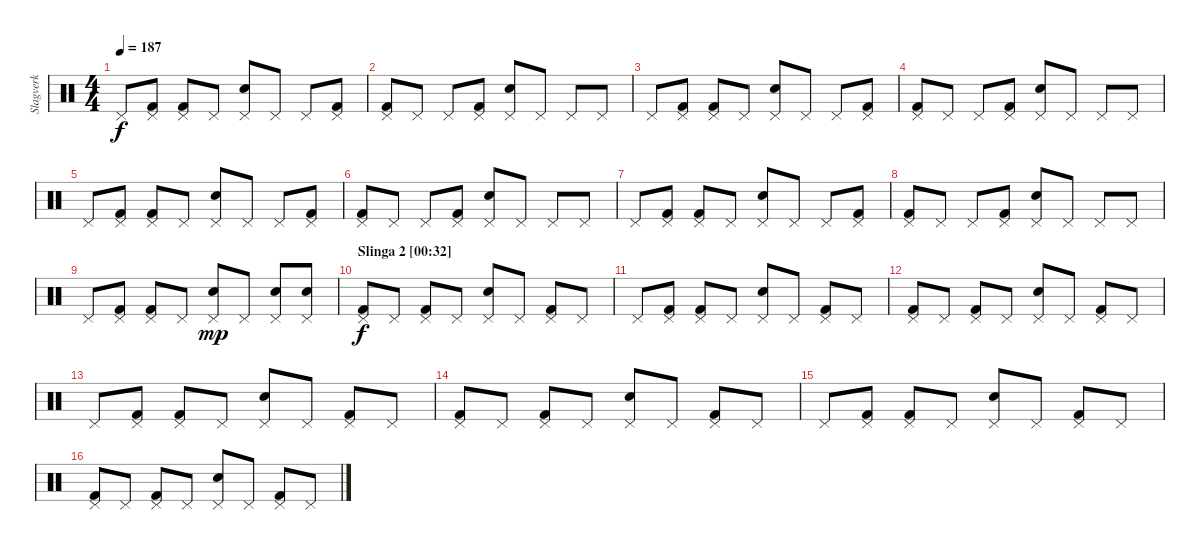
\track ("Slagverk" "Slagverk") {instrument percussion}
\staff {score}
\articulation defaults
\ts (4 4)
\tempo 187
\clef neutral
\ks c "Pedal Hi-Hat (hit)".8{dy f}
("Pedal Hi-Hat (hit)" "Kick (hit) 2").8 ("Pedal Hi-Hat (hit)" "Kick (hit) 2").8 "Pedal Hi-Hat (hit)".8 ("Pedal Hi-Hat (hit)" "Electric Snare (hit)").8 "Pedal Hi-Hat (hit)".8 "Pedal Hi-Hat (hit)".8 ("Pedal Hi-Hat (hit)" "Kick (hit) 2").8 |
\section ("" "")
("Pedal Hi-Hat (hit)" "Kick (hit) 2").8 "Pedal Hi-Hat (hit)".8 "Pedal Hi-Hat (hit)".8 ("Pedal Hi-Hat (hit)" "Kick (hit) 2").8 ("Pedal Hi-Hat (hit)" "Electric Snare (hit)").8 "Pedal Hi-Hat (hit)".8 "Pedal Hi-Hat (hit)".8 "Pedal Hi-Hat (hit)".8 |
"Pedal Hi-Hat (hit)".8 ("Pedal Hi-Hat (hit)" "Kick (hit) 2").8 ("Pedal Hi-Hat (hit)" "Kick (hit) 2").8 "Pedal Hi-Hat (hit)".8 ("Pedal Hi-Hat (hit)" "Electric Snare (hit)").8 "Pedal Hi-Hat (hit)".8 "Pedal Hi-Hat (hit)".8 ("Pedal Hi-Hat (hit)" "Kick (hit) 2").8 |
("Pedal Hi-Hat (hit)" "Kick (hit) 2").8 "Pedal Hi-Hat (hit)".8 "Pedal Hi-Hat (hit)".8 ("Pedal Hi-Hat (hit)" "Kick (hit) 2").8 ("Pedal Hi-Hat (hit)" "Electric Snare (hit)").8 "Pedal Hi-Hat (hit)".8 "Pedal Hi-Hat (hit)".8 "Pedal Hi-Hat (hit)".8 |
"Pedal Hi-Hat (hit)".8 ("Pedal Hi-Hat (hit)" "Kick (hit) 2").8 ("Pedal Hi-Hat (hit)" "Kick (hit) 2").8 "Pedal Hi-Hat (hit)".8 ("Pedal Hi-Hat (hit)" "Electric Snare (hit)").8 "Pedal Hi-Hat (hit)".8 "Pedal Hi-Hat (hit)".8 ("Pedal Hi-Hat (hit)" "Kick (hit) 2").8 |
\section ("" "")
("Pedal Hi-Hat (hit)" "Kick (hit) 2").8 "Pedal Hi-Hat (hit)".8 "Pedal Hi-Hat (hit)".8 ("Pedal Hi-Hat (hit)" "Kick (hit) 2").8 ("Pedal Hi-Hat (hit)" "Electric Snare (hit)").8 "Pedal Hi-Hat (hit)".8 "Pedal Hi-Hat (hit)".8 "Pedal Hi-Hat (hit)".8 |
"Pedal Hi-Hat (hit)".8 ("Pedal Hi-Hat (hit)" "Kick (hit) 2").8 ("Pedal Hi-Hat (hit)" "Kick (hit) 2").8 "Pedal Hi-Hat (hit)".8 ("Pedal Hi-Hat (hit)" "Electric Snare (hit)").8 "Pedal Hi-Hat (hit)".8 "Pedal Hi-Hat (hit)".8 ("Pedal Hi-Hat (hit)" "Kick (hit) 2").8 |
("Pedal Hi-Hat (hit)" "Kick (hit) 2").8 "Pedal Hi-Hat (hit)".8 "Pedal Hi-Hat (hit)".8 ("Pedal Hi-Hat (hit)" "Kick (hit) 2").8 ("Pedal Hi-Hat (hit)" "Electric Snare (hit)").8 "Pedal Hi-Hat (hit)".8 "Pedal Hi-Hat (hit)".8 "Pedal Hi-Hat (hit)".8 |
"Pedal Hi-Hat (hit)".8 ("Pedal Hi-Hat (hit)" "Kick (hit) 2").8 ("Pedal Hi-Hat (hit)" "Kick (hit) 2").8 "Pedal Hi-Hat (hit)".8 ("Pedal Hi-Hat (hit)" "Electric Snare (hit)").8{dy mp} "Pedal Hi-Hat (hit)".8 ("Pedal Hi-Hat (hit)" "Electric Snare (hit)").8 ("Pedal Hi-Hat (hit)" "Electric Snare (hit)").8 |
\section ("" "Slinga 2 [00:32]")
("Pedal Hi-Hat (hit)" "Kick (hit) 2").8{dy f} "Pedal Hi-Hat (hit)".8 ("Pedal Hi-Hat (hit)" "Kick (hit) 2").8 "Pedal Hi-Hat (hit)".8 ("Pedal Hi-Hat (hit)" "Electric Snare (hit)").8 "Pedal Hi-Hat (hit)".8 ("Pedal Hi-Hat (hit)" "Kick (hit) 2").8 "Pedal Hi-Hat (hit)".8 |
"Pedal Hi-Hat (hit)".8 ("Pedal Hi-Hat (hit)" "Kick (hit) 2").8 ("Pedal Hi-Hat (hit)" "Kick (hit) 2").8 "Pedal Hi-Hat (hit)".8 ("Pedal Hi-Hat (hit)" "Electric Snare (hit)").8 "Pedal Hi-Hat (hit)".8 ("Pedal Hi-Hat (hit)" "Kick (hit) 2").8 "Pedal Hi-Hat (hit)".8 |
("Pedal Hi-Hat (hit)" "Kick (hit) 2").8 "Pedal Hi-Hat (hit)".8 ("Pedal Hi-Hat (hit)" "Kick (hit) 2").8 "Pedal Hi-Hat (hit)".8 ("Pedal Hi-Hat (hit)" "Electric Snare (hit)").8 "Pedal Hi-Hat (hit)".8 ("Pedal Hi-Hat (hit)" "Kick (hit) 2").8 "Pedal Hi-Hat (hit)".8 |
"Pedal Hi-Hat (hit)".8 ("Pedal Hi-Hat (hit)" "Kick (hit) 2").8 ("Pedal Hi-Hat (hit)" "Kick (hit) 2").8 "Pedal Hi-Hat (hit)".8 ("Pedal Hi-Hat (hit)" "Electric Snare (hit)").8 "Pedal Hi-Hat (hit)".8 ("Pedal Hi-Hat (hit)" "Kick (hit) 2").8 "Pedal Hi-Hat (hit)".8 |
("Pedal Hi-Hat (hit)" "Kick (hit) 2").8 "Pedal Hi-Hat (hit)".8 ("Pedal Hi-Hat (hit)" "Kick (hit) 2").8 "Pedal Hi-Hat (hit)".8 ("Pedal Hi-Hat (hit)" "Electric Snare (hit)").8 "Pedal Hi-Hat (hit)".8 ("Pedal Hi-Hat (hit)" "Kick (hit) 2").8 "Pedal Hi-Hat (hit)".8 |
"Pedal Hi-Hat (hit)".8 ("Pedal Hi-Hat (hit)" "Kick (hit) 2").8 ("Pedal Hi-Hat (hit)" "Kick (hit) 2").8 "Pedal Hi-Hat (hit)".8 ("Pedal Hi-Hat (hit)" "Electric Snare (hit)").8 "Pedal Hi-Hat (hit)".8 ("Pedal Hi-Hat (hit)" "Kick (hit) 2").8 "Pedal Hi-Hat (hit)".8 |
("Pedal Hi-Hat (hit)" "Kick (hit) 2").8 "Pedal Hi-Hat (hit)".8 ("Pedal Hi-Hat (hit)" "Kick (hit) 2").8 "Pedal Hi-Hat (hit)".8 ("Pedal Hi-Hat (hit)" "Electric Snare (hit)").8 "Pedal Hi-Hat (hit)".8 ("Pedal Hi-Hat (hit)" "Kick (hit) 2").8 "Pedal Hi-Hat (hit)".8
